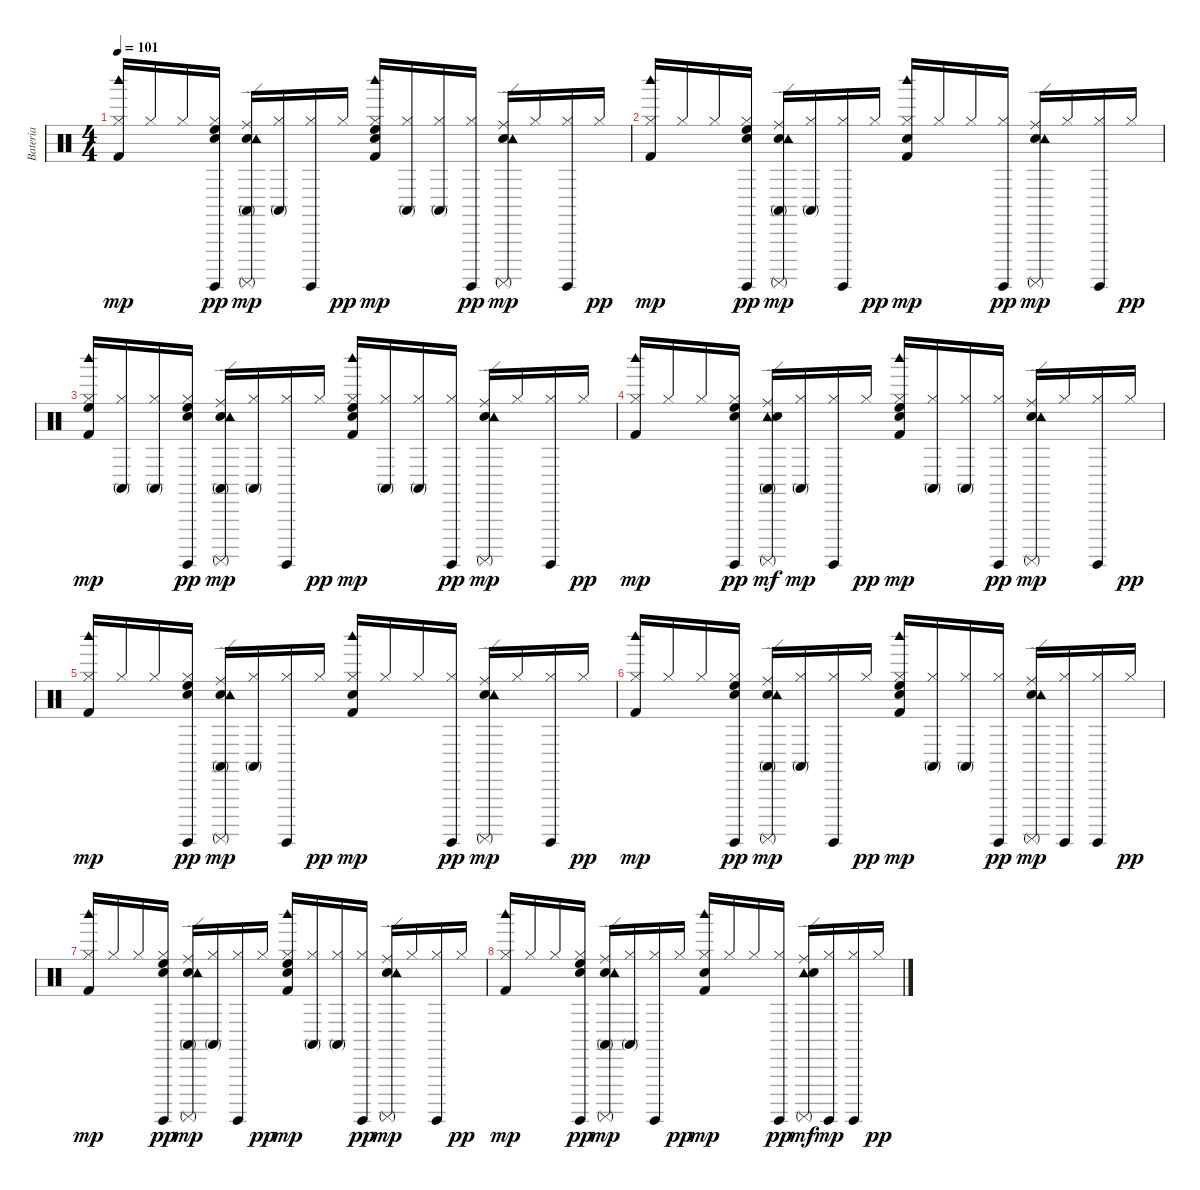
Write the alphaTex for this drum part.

\track ("Bateria" "Bateria") {instrument percussion}
\staff {score}
\articulation defaults
\ts (4 4)
\tempo 101
\clef neutral
\ks c
("Kick (hit) 2" "Hi-Hat (closed)" "Woodblock high (hit)").16{dy mp} "Hi-Hat (closed)".16 "Hi-Hat (closed)".16 ("High Floor Tom (hit)" "Snare (hit)" "Surdo (hit)" "Hi-Hat (closed)").16{dy pp} ("Conga high (mute)" "Ride (edge)" "Electric Snare (hit)" "Surdo (mute)" "Tambourine (hit)").16{dy mp} ("Conga high (mute)" "Hi-Hat (closed)").16 ("Surdo (hit)" "Hi-Hat (closed)").16 "Hi-Hat (closed)".16{dy pp} ("High Floor Tom (hit)" "Snare (hit)" "Kick (hit) 2" "Hi-Hat (closed)" "Woodblock high (hit)").16{dy mp} ("Conga high (mute)" "Hi-Hat (closed)").16 ("Conga high (mute)" "Hi-Hat (closed)").16 ("Surdo (hit)" "Hi-Hat (closed)").16{dy pp} ("Ride (edge)" "Electric Snare (hit)" "Surdo (mute)" "Tambourine (hit)").16{dy mp} "Hi-Hat (closed)".16 ("Surdo (hit)" "Hi-Hat (closed)").16 "Hi-Hat (closed)".16{dy pp} |
("Kick (hit) 2" "Hi-Hat (closed)" "Woodblock high (hit)").16{dy mp} "Hi-Hat (closed)".16 "Hi-Hat (closed)".16 ("High Floor Tom (hit)" "Snare (hit)" "Surdo (hit)" "Hi-Hat (closed)").16{dy pp} ("Conga high (mute)" "Ride (edge)" "Electric Snare (hit)" "Surdo (mute)" "Tambourine (hit)").16{dy mp} ("Conga high (mute)" "Hi-Hat (closed)").16 ("Surdo (hit)" "Hi-Hat (closed)").16 "Hi-Hat (closed)".16{dy pp} ("Snare (hit)" "Hi-Hat (closed)" "Woodblock high (hit)" "Kick (hit) 2").16{dy mp} "Hi-Hat (closed)".16 "Hi-Hat (closed)".16 ("Surdo (hit)" "Hi-Hat (closed)").16{dy pp} ("Ride (edge)" "Electric Snare (hit)" "Surdo (mute)" "Tambourine (hit)").16{dy mp} "Hi-Hat (closed)".16 ("Surdo (hit)" "Hi-Hat (closed)").16 "Hi-Hat (closed)".16{dy pp} |
("High Floor Tom (hit)" "Kick (hit) 2" "Hi-Hat (closed)" "Woodblock high (hit)").16{dy mp} ("Conga high (mute)" "Hi-Hat (closed)").16 ("Conga high (mute)" "Hi-Hat (closed)").16 ("High Floor Tom (hit)" "Snare (hit)" "Surdo (hit)" "Hi-Hat (closed)").16{dy pp} ("Conga high (mute)" "Ride (edge)" "Electric Snare (hit)" "Surdo (mute)" "Tambourine (hit)").16{dy mp} ("Conga high (mute)" "Hi-Hat (closed)").16 ("Surdo (hit)" "Hi-Hat (closed)").16 "Hi-Hat (closed)".16{dy pp} ("High Floor Tom (hit)" "Snare (hit)" "Hi-Hat (closed)" "Woodblock high (hit)" "Kick (hit) 2").16{dy mp} ("Conga high (mute)" "Hi-Hat (closed)").16 ("Conga high (mute)" "Hi-Hat (closed)").16 ("Surdo (hit)" "Hi-Hat (closed)").16{dy pp} ("Ride (edge)" "Electric Snare (hit)" "Surdo (mute)" "Tambourine (hit)").16{dy mp} "Hi-Hat (closed)".16 ("Surdo (hit)" "Hi-Hat (closed)").16 "Hi-Hat (closed)".16{dy pp} |
("Woodblock high (hit)" "Kick (hit) 2" "Hi-Hat (closed)").16{dy mp} "Hi-Hat (closed)".16 "Hi-Hat (closed)".16 ("High Floor Tom (hit)" "Snare (hit)" "Surdo (hit)" "Hi-Hat (closed)").16{dy pp} ("Conga high (mute)" "Ride (edge)" "Tambourine (hit)" "Electric Snare (hit)" "Surdo (mute)").16{dy mf} ("Conga high (mute)" "Hi-Hat (closed)").16{dy mp} ("Surdo (hit)" "Hi-Hat (closed)").16 "Hi-Hat (closed)".16{dy pp} ("High Floor Tom (hit)" "Snare (hit)" "Kick (hit) 2" "Hi-Hat (closed)" "Woodblock high (hit)").16{dy mp} ("Conga high (mute)" "Hi-Hat (closed)").16 ("Conga high (mute)" "Hi-Hat (closed)").16 ("Surdo (hit)" "Hi-Hat (closed)").16{dy pp} ("Ride (edge)" "Electric Snare (hit)" "Surdo (mute)" "Tambourine (hit)").16{dy mp} "Hi-Hat (closed)".16 ("Surdo (hit)" "Hi-Hat (closed)").16 "Hi-Hat (closed)".16{dy pp} |
("Kick (hit) 2" "Hi-Hat (closed)" "Woodblock high (hit)").16{dy mp} "Hi-Hat (closed)".16 "Hi-Hat (closed)".16 ("High Floor Tom (hit)" "Snare (hit)" "Surdo (hit)" "Hi-Hat (closed)").16{dy pp} ("Conga high (mute)" "Ride (edge)" "Electric Snare (hit)" "Surdo (mute)" "Tambourine (hit)").16{dy mp} ("Conga high (mute)" "Hi-Hat (closed)").16 ("Surdo (hit)" "Hi-Hat (closed)").16 "Hi-Hat (closed)".16{dy pp} ("Snare (hit)" "Woodblock high (hit)" "Kick (hit) 2" "Hi-Hat (closed)").16{dy mp} "Hi-Hat (closed)".16 "Hi-Hat (closed)".16 ("Surdo (hit)" "Hi-Hat (closed)").16{dy pp} ("Ride (edge)" "Electric Snare (hit)" "Surdo (mute)" "Tambourine (hit)").16{dy mp} "Hi-Hat (closed)".16 ("Surdo (hit)" "Hi-Hat (closed)").16 "Hi-Hat (closed)".16{dy pp} |
("Hi-Hat (closed)" "Woodblock high (hit)" "Kick (hit) 2").16{dy mp} "Hi-Hat (closed)".16 "Hi-Hat (closed)".16 ("High Floor Tom (hit)" "Snare (hit)" "Surdo (hit)" "Hi-Hat (closed)").16{dy pp} ("Conga high (mute)" "Ride (edge)" "Electric Snare (hit)" "Surdo (mute)" "Tambourine (hit)").16{dy mp} ("Conga high (mute)" "Hi-Hat (closed)").16 ("Surdo (hit)" "Hi-Hat (closed)").16 "Hi-Hat (closed)".16{dy pp} ("High Floor Tom (hit)" "Snare (hit)" "Kick (hit) 2" "Hi-Hat (closed)" "Woodblock high (hit)").16{dy mp} ("Conga high (mute)" "Hi-Hat (closed)").16 ("Conga high (mute)" "Hi-Hat (closed)").16 ("Surdo (hit)" "Hi-Hat (closed)").16{dy pp} ("Ride (edge)" "Electric Snare (hit)" "Surdo (mute)" "Tambourine (hit)").16{dy mp} ("Surdo (hit)" "Hi-Hat (closed)").16 ("Surdo (hit)" "Hi-Hat (closed)").16 "Hi-Hat (closed)".16{dy pp} |
("Kick (hit) 2" "Hi-Hat (closed)" "Woodblock high (hit)").16{dy mp} "Hi-Hat (closed)".16 "Hi-Hat (closed)".16 ("High Floor Tom (hit)" "Snare (hit)" "Surdo (hit)" "Hi-Hat (closed)").16{dy pp} ("Conga high (mute)" "Ride (edge)" "Electric Snare (hit)" "Surdo (mute)" "Tambourine (hit)").16{dy mp} ("Conga high (mute)" "Hi-Hat (closed)").16 ("Surdo (hit)" "Hi-Hat (closed)").16 "Hi-Hat (closed)".16{dy pp} ("High Floor Tom (hit)" "Snare (hit)" "Kick (hit) 2" "Hi-Hat (closed)" "Woodblock high (hit)").16{dy mp} ("Conga high (mute)" "Hi-Hat (closed)").16 ("Conga high (mute)" "Hi-Hat (closed)").16 ("Surdo (hit)" "Hi-Hat (closed)").16{dy pp} ("Ride (edge)" "Electric Snare (hit)" "Surdo (mute)" "Tambourine (hit)").16{dy mp} "Hi-Hat (closed)".16 ("Surdo (hit)" "Hi-Hat (closed)").16 "Hi-Hat (closed)".16{dy pp} |
("Kick (hit) 2" "Hi-Hat (closed)" "Woodblock high (hit)").16{dy mp} "Hi-Hat (closed)".16 "Hi-Hat (closed)".16 ("High Floor Tom (hit)" "Snare (hit)" "Surdo (hit)" "Hi-Hat (closed)").16{dy pp} ("Conga high (mute)" "Ride (edge)" "Electric Snare (hit)" "Surdo (mute)" "Tambourine (hit)").16{dy mp} ("Conga high (mute)" "Hi-Hat (closed)").16 ("Surdo (hit)" "Hi-Hat (closed)").16 "Hi-Hat (closed)".16{dy pp} ("Snare (hit)" "Hi-Hat (closed)" "Woodblock high (hit)" "Kick (hit) 2").16{dy mp} "Hi-Hat (closed)".16 "Hi-Hat (closed)".16 ("Surdo (hit)" "Hi-Hat (closed)").16{dy pp} ("Ride (edge)" "Surdo (mute)" "Tambourine (hit)" "Electric Snare (hit)").16{dy mf} ("Surdo (hit)" "Hi-Hat (closed)").16{dy mp} ("Surdo (hit)" "Hi-Hat (closed)").16 "Hi-Hat (closed)".16{dy pp}
